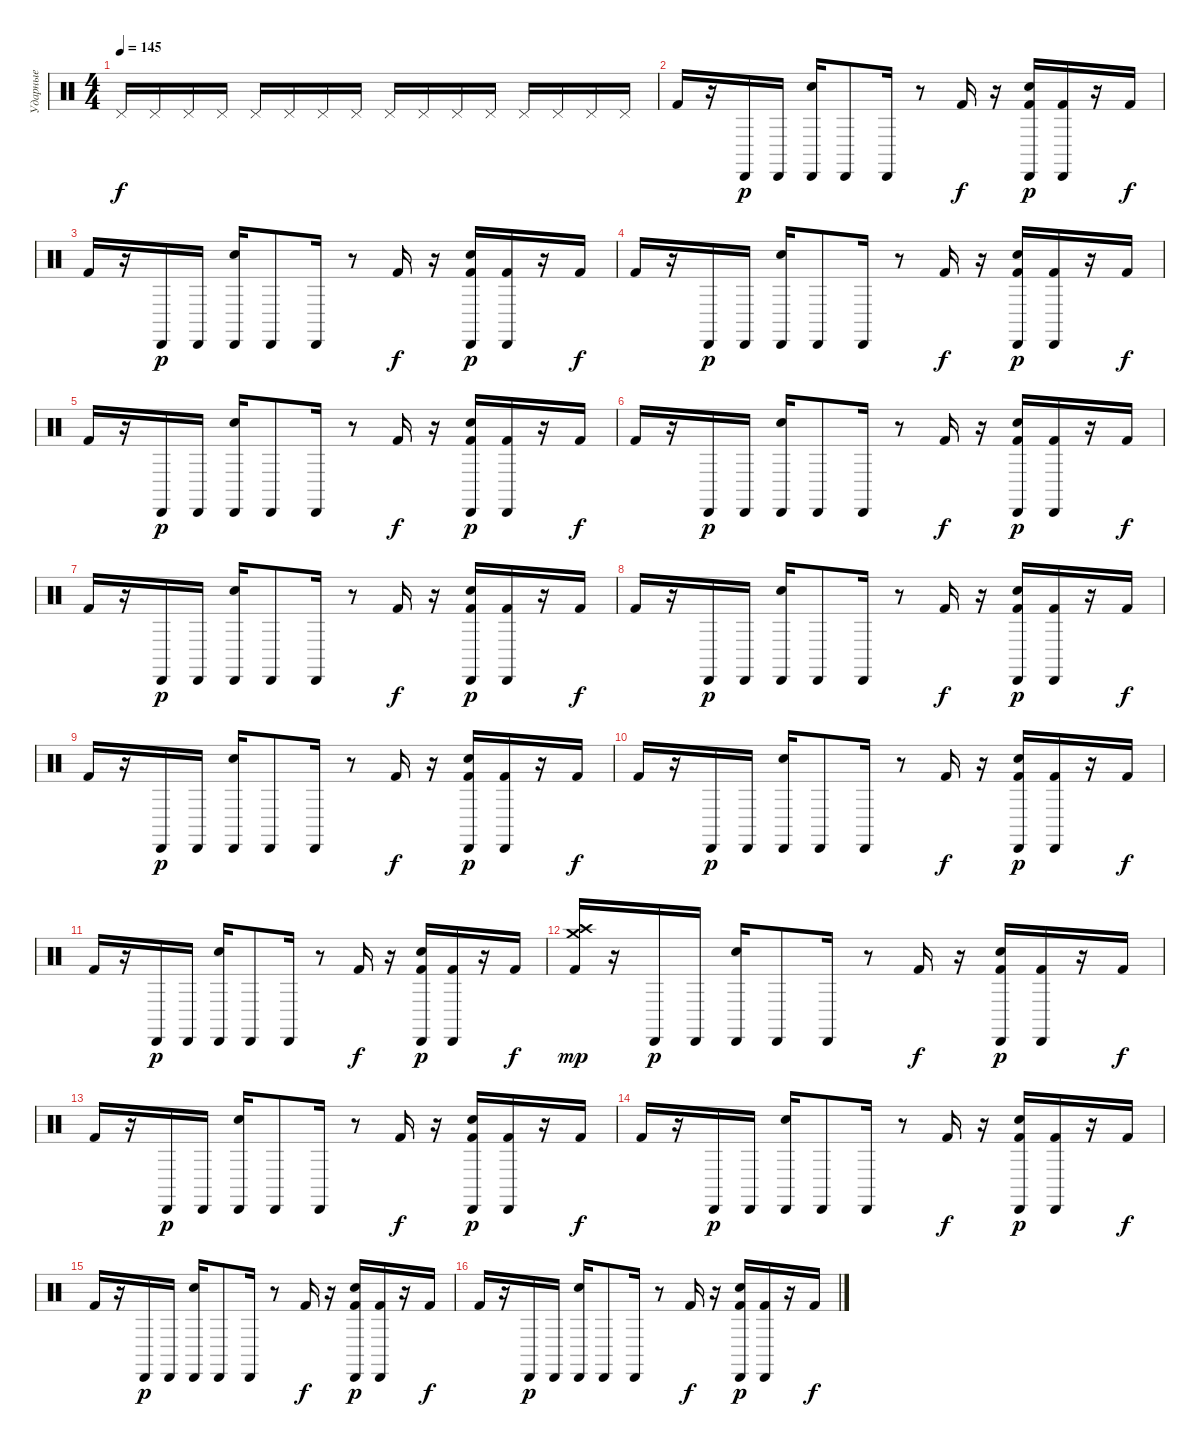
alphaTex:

\track ("Ударные" "Ударные") {instrument percussion}
\staff {score}
\articulation defaults
\ts (4 4)
\tempo 145
\clef neutral
\ks c "Pedal Hi-Hat (hit)".16{dy f} "Pedal Hi-Hat (hit)".16 "Pedal Hi-Hat (hit)".16 "Pedal Hi-Hat (hit)".16 "Pedal Hi-Hat (hit)".16 "Pedal Hi-Hat (hit)".16 "Pedal Hi-Hat (hit)".16 "Pedal Hi-Hat (hit)".16 "Pedal Hi-Hat (hit)".16 "Pedal Hi-Hat (hit)".16 "Pedal Hi-Hat (hit)".16 "Pedal Hi-Hat (hit)".16 "Pedal Hi-Hat (hit)".16 "Pedal Hi-Hat (hit)".16 "Pedal Hi-Hat (hit)".16 "Pedal Hi-Hat (hit)".16
|
"Kick (hit) 2".16 r.16 "Cabasa (hit)".16{dy p} "Cabasa (hit)".16 ("Electric Snare (hit)" "Cabasa (hit)").16 "Cabasa (hit)".8 "Cabasa (hit)".16 r.8 "Kick (hit) 2".16{dy f} r.16 ("Kick (hit) 2" "Electric Snare (hit)" "Cabasa (hit)").16{dy p} ("Kick (hit) 2" "Cabasa (hit)").16 r.16 "Kick (hit) 2".16{dy f} |
"Kick (hit) 2".16 r.16 "Cabasa (hit)".16{dy p} "Cabasa (hit)".16 ("Electric Snare (hit)" "Cabasa (hit)").16 "Cabasa (hit)".8 "Cabasa (hit)".16 r.8 "Kick (hit) 2".16{dy f} r.16 ("Kick (hit) 2" "Electric Snare (hit)" "Cabasa (hit)").16{dy p} ("Kick (hit) 2" "Cabasa (hit)").16 r.16 "Kick (hit) 2".16{dy f} |
"Kick (hit) 2".16 r.16 "Cabasa (hit)".16{dy p} "Cabasa (hit)".16 ("Electric Snare (hit)" "Cabasa (hit)").16 "Cabasa (hit)".8 "Cabasa (hit)".16 r.8 "Kick (hit) 2".16{dy f} r.16 ("Kick (hit) 2" "Electric Snare (hit)" "Cabasa (hit)").16{dy p} ("Kick (hit) 2" "Cabasa (hit)").16 r.16 "Kick (hit) 2".16{dy f} |
"Kick (hit) 2".16 r.16 "Cabasa (hit)".16{dy p} "Cabasa (hit)".16 ("Electric Snare (hit)" "Cabasa (hit)").16 "Cabasa (hit)".8 "Cabasa (hit)".16 r.8 "Kick (hit) 2".16{dy f} r.16 ("Kick (hit) 2" "Electric Snare (hit)" "Cabasa (hit)").16{dy p} ("Kick (hit) 2" "Cabasa (hit)").16 r.16 "Kick (hit) 2".16{dy f} |
"Kick (hit) 2".16 r.16 "Cabasa (hit)".16{dy p} "Cabasa (hit)".16 ("Electric Snare (hit)" "Cabasa (hit)").16 "Cabasa (hit)".8 "Cabasa (hit)".16 r.8 "Kick (hit) 2".16{dy f} r.16 ("Kick (hit) 2" "Electric Snare (hit)" "Cabasa (hit)").16{dy p} ("Kick (hit) 2" "Cabasa (hit)").16 r.16 "Kick (hit) 2".16{dy f} |
"Kick (hit) 2".16 r.16 "Cabasa (hit)".16{dy p} "Cabasa (hit)".16 ("Electric Snare (hit)" "Cabasa (hit)").16 "Cabasa (hit)".8 "Cabasa (hit)".16 r.8 "Kick (hit) 2".16{dy f} r.16 ("Kick (hit) 2" "Electric Snare (hit)" "Cabasa (hit)").16{dy p} ("Kick (hit) 2" "Cabasa (hit)").16 r.16 "Kick (hit) 2".16{dy f} |
"Kick (hit) 2".16 r.16 "Cabasa (hit)".16{dy p} "Cabasa (hit)".16 ("Electric Snare (hit)" "Cabasa (hit)").16 "Cabasa (hit)".8 "Cabasa (hit)".16 r.8 "Kick (hit) 2".16{dy f} r.16 ("Kick (hit) 2" "Electric Snare (hit)" "Cabasa (hit)").16{dy p} ("Kick (hit) 2" "Cabasa (hit)").16 r.16 "Kick (hit) 2".16{dy f} |
"Kick (hit) 2".16 r.16 "Cabasa (hit)".16{dy p} "Cabasa (hit)".16 ("Electric Snare (hit)" "Cabasa (hit)").16 "Cabasa (hit)".8 "Cabasa (hit)".16 r.8 "Kick (hit) 2".16{dy f} r.16 ("Kick (hit) 2" "Electric Snare (hit)" "Cabasa (hit)").16{dy p} ("Kick (hit) 2" "Cabasa (hit)").16 r.16 "Kick (hit) 2".16{dy f} |
"Kick (hit) 2".16 r.16 "Cabasa (hit)".16{dy p} "Cabasa (hit)".16 ("Electric Snare (hit)" "Cabasa (hit)").16 "Cabasa (hit)".8 "Cabasa (hit)".16 r.8 "Kick (hit) 2".16{dy f} r.16 ("Kick (hit) 2" "Electric Snare (hit)" "Cabasa (hit)").16{dy p} ("Kick (hit) 2" "Cabasa (hit)").16 r.16 "Kick (hit) 2".16{dy f} |
"Kick (hit) 2".16 r.16 "Cabasa (hit)".16{dy p} "Cabasa (hit)".16 ("Electric Snare (hit)" "Cabasa (hit)").16 "Cabasa (hit)".8 "Cabasa (hit)".16 r.8 "Kick (hit) 2".16{dy f} r.16 ("Kick (hit) 2" "Electric Snare (hit)" "Cabasa (hit)").16{dy p} ("Kick (hit) 2" "Cabasa (hit)").16 r.16 "Kick (hit) 2".16{dy f} |
("Kick (hit) 2" "Crash high (hit)" "Crash medium (hit)").16{dy mp} r.16 "Cabasa (hit)".16{dy p} "Cabasa (hit)".16 ("Electric Snare (hit)" "Cabasa (hit)").16 "Cabasa (hit)".8 "Cabasa (hit)".16 r.8 "Kick (hit) 2".16{dy f} r.16 ("Kick (hit) 2" "Electric Snare (hit)" "Cabasa (hit)").16{dy p} ("Kick (hit) 2" "Cabasa (hit)").16 r.16 "Kick (hit) 2".16{dy f} |
"Kick (hit) 2".16 r.16 "Cabasa (hit)".16{dy p} "Cabasa (hit)".16 ("Electric Snare (hit)" "Cabasa (hit)").16 "Cabasa (hit)".8 "Cabasa (hit)".16 r.8 "Kick (hit) 2".16{dy f} r.16 ("Kick (hit) 2" "Electric Snare (hit)" "Cabasa (hit)").16{dy p} ("Kick (hit) 2" "Cabasa (hit)").16 r.16 "Kick (hit) 2".16{dy f} |
"Kick (hit) 2".16 r.16 "Cabasa (hit)".16{dy p} "Cabasa (hit)".16 ("Electric Snare (hit)" "Cabasa (hit)").16 "Cabasa (hit)".8 "Cabasa (hit)".16 r.8 "Kick (hit) 2".16{dy f} r.16 ("Kick (hit) 2" "Electric Snare (hit)" "Cabasa (hit)").16{dy p} ("Kick (hit) 2" "Cabasa (hit)").16 r.16 "Kick (hit) 2".16{dy f} |
"Kick (hit) 2".16 r.16 "Cabasa (hit)".16{dy p} "Cabasa (hit)".16 ("Electric Snare (hit)" "Cabasa (hit)").16 "Cabasa (hit)".8 "Cabasa (hit)".16 r.8 "Kick (hit) 2".16{dy f} r.16 ("Kick (hit) 2" "Electric Snare (hit)" "Cabasa (hit)").16{dy p} ("Kick (hit) 2" "Cabasa (hit)").16 r.16 "Kick (hit) 2".16{dy f} |
"Kick (hit) 2".16 r.16 "Cabasa (hit)".16{dy p} "Cabasa (hit)".16 ("Electric Snare (hit)" "Cabasa (hit)").16 "Cabasa (hit)".8 "Cabasa (hit)".16 r.8 "Kick (hit) 2".16{dy f} r.16 ("Kick (hit) 2" "Electric Snare (hit)" "Cabasa (hit)").16{dy p} ("Kick (hit) 2" "Cabasa (hit)").16 r.16 "Kick (hit) 2".16{dy f}
